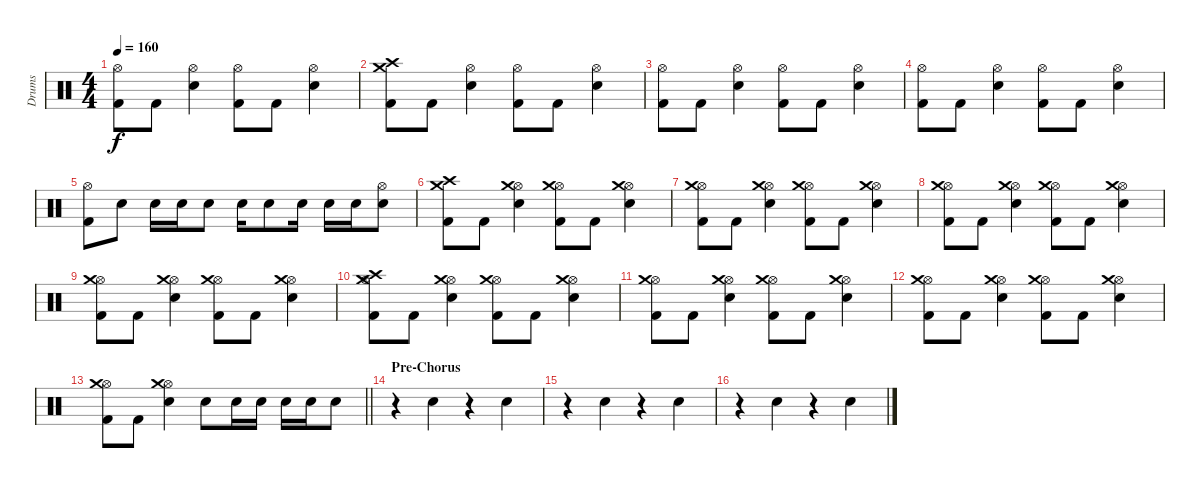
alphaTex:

\track ("Drums" "Drums") {instrument percussion}
\staff {score}
\articulation defaults
\ts (4 4)
\tempo 160
\clef neutral
\ks c
("Hi-Hat (open)" "Kick (hit) 2").8{dy f} "Kick (hit) 2".8 ("Hi-Hat (open)" "Snare (hit) 2").4 ("Hi-Hat (open)" "Kick (hit) 2").8 "Kick (hit) 2".8 ("Hi-Hat (open)" "Snare (hit) 2").4 |
("Crash medium (hit)" "Crash high (hit)" "Kick (hit) 2").8 "Kick (hit) 2".8 ("Hi-Hat (open)" "Snare (hit) 2").4 ("Hi-Hat (open)" "Kick (hit) 2").8 "Kick (hit) 2".8 ("Hi-Hat (open)" "Snare (hit) 2").4 |
("Hi-Hat (open)" "Kick (hit) 2").8 "Kick (hit) 2".8 ("Hi-Hat (open)" "Snare (hit) 2").4 ("Hi-Hat (open)" "Kick (hit) 2").8 "Kick (hit) 2".8 ("Hi-Hat (open)" "Snare (hit) 2").4 |
("Hi-Hat (open)" "Kick (hit) 2").8 "Kick (hit) 2".8 ("Hi-Hat (open)" "Snare (hit) 2").4 ("Hi-Hat (open)" "Kick (hit) 2").8 "Kick (hit) 2".8 ("Hi-Hat (open)" "Snare (hit) 2").4 |
("Hi-Hat (open)" "Kick (hit) 2").8 "Snare (hit) 2".8 "Snare (hit) 2".16 "Snare (hit) 2".16 "Snare (hit) 2".8 "Snare (hit) 2".16 "Snare (hit) 2".8 "Snare (hit) 2".16 "Snare (hit) 2".16 "Snare (hit) 2".16 ("Hi-Hat (open)" "Snare (hit) 2").8 |
("Crash medium (hit)" "Crash high (hit)" "Kick (hit) 2").8 "Kick (hit) 2".8 ("Hi-Hat (open)" "Crash medium (hit)" "Snare (hit) 2").4 ("Hi-Hat (open)" "Crash medium (hit)" "Kick (hit) 2").8 "Kick (hit) 2".8 ("Hi-Hat (open)" "Crash medium (hit)" "Snare (hit) 2").4 |
("Hi-Hat (open)" "Crash medium (hit)" "Kick (hit) 2").8 "Kick (hit) 2".8 ("Hi-Hat (open)" "Crash medium (hit)" "Snare (hit) 2").4 ("Hi-Hat (open)" "Crash medium (hit)" "Kick (hit) 2").8 "Kick (hit) 2".8 ("Hi-Hat (open)" "Crash medium (hit)" "Snare (hit) 2").4 |
("Hi-Hat (open)" "Crash medium (hit)" "Kick (hit) 2").8 "Kick (hit) 2".8 ("Hi-Hat (open)" "Crash medium (hit)" "Snare (hit) 2").4 ("Hi-Hat (open)" "Crash medium (hit)" "Kick (hit) 2").8 "Kick (hit) 2".8 ("Hi-Hat (open)" "Crash medium (hit)" "Snare (hit) 2").4 |
("Hi-Hat (open)" "Crash medium (hit)" "Kick (hit) 2").8 "Kick (hit) 2".8 ("Hi-Hat (open)" "Crash medium (hit)" "Snare (hit) 2").4 ("Hi-Hat (open)" "Crash medium (hit)" "Kick (hit) 2").8 "Kick (hit) 2".8 ("Hi-Hat (open)" "Crash medium (hit)" "Snare (hit) 2").4 |
("Crash medium (hit)" "Crash high (hit)" "Hi-Hat (open)" "Kick (hit) 2").8 "Kick (hit) 2".8 ("Hi-Hat (open)" "Crash medium (hit)" "Snare (hit) 2").4 ("Hi-Hat (open)" "Crash medium (hit)" "Kick (hit) 2").8 "Kick (hit) 2".8 ("Hi-Hat (open)" "Crash medium (hit)" "Snare (hit) 2").4 |
("Hi-Hat (open)" "Crash medium (hit)" "Kick (hit) 2").8 "Kick (hit) 2".8 ("Hi-Hat (open)" "Crash medium (hit)" "Snare (hit) 2").4 ("Hi-Hat (open)" "Crash medium (hit)" "Kick (hit) 2").8 "Kick (hit) 2".8 ("Hi-Hat (open)" "Crash medium (hit)" "Snare (hit) 2").4 |
("Hi-Hat (open)" "Crash medium (hit)" "Kick (hit) 2").8 "Kick (hit) 2".8 ("Hi-Hat (open)" "Crash medium (hit)" "Snare (hit) 2").4 ("Hi-Hat (open)" "Crash medium (hit)" "Kick (hit) 2").8 "Kick (hit) 2".8 ("Hi-Hat (open)" "Crash medium (hit)" "Snare (hit) 2").4 |
\barLineRight lightlight
("Hi-Hat (open)" "Crash medium (hit)" "Kick (hit) 2").8 "Kick (hit) 2".8 ("Hi-Hat (open)" "Crash medium (hit)" "Snare (hit) 2").4 "Snare (hit) 2".8 "Snare (hit) 2".16 "Snare (hit) 2".16 "Snare (hit) 2".16 "Snare (hit) 2".16 "Snare (hit) 2".8 |
\section ("" "Pre-Chorus")
r.4 "Snare (hit) 2".4 r.4 "Snare (hit) 2".4 |
r.4 "Snare (hit) 2".4 r.4 "Snare (hit) 2".4 |
r.4 "Snare (hit) 2".4 r.4 "Snare (hit) 2".4
